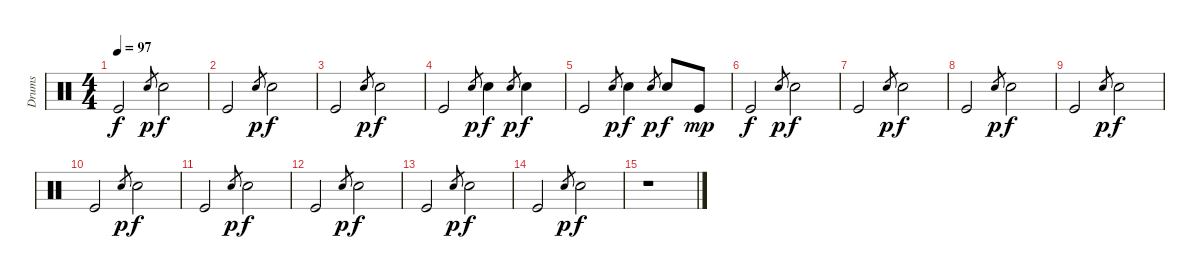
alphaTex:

\track ("Drums" "Drums") {instrument percussion}
\staff {score}
\articulation defaults
\ts (4 4)
\tempo 97
\clef neutral
\ks c "Kick (hit)".2{dy f} "Snare (hit) 2".8{gr dy p} "Snare (hit) 2".2{dy f}
|
"Kick (hit)".2 "Snare (hit) 2".8{gr dy p} "Snare (hit) 2".2{dy f} |
"Kick (hit)".2 "Snare (hit) 2".8{gr dy p} "Snare (hit) 2".2{dy f} |
"Kick (hit)".2 "Snare (hit) 2".8{gr dy p} "Snare (hit) 2".4{dy f} "Snare (hit) 2".8{gr dy p} "Snare (hit) 2".4{dy f} |
"Kick (hit)".2 "Snare (hit) 2".8{gr dy p} "Snare (hit) 2".4{dy f} "Snare (hit) 2".8{gr dy p} "Snare (hit) 2".8{dy f} "Kick (hit)".8{dy mp} |
"Kick (hit)".2{dy f} "Snare (hit) 2".8{gr dy p} "Snare (hit) 2".2{dy f} |
"Kick (hit)".2{volume 0} "Snare (hit) 2".8{gr dy p} "Snare (hit) 2".2{dy f} |
"Kick (hit)".2 "Snare (hit) 2".8{gr dy p} "Snare (hit) 2".2{dy f} |
"Kick (hit)".2 "Snare (hit) 2".8{gr dy p} "Snare (hit) 2".2{dy f} |
"Kick (hit)".2 "Snare (hit) 2".8{gr dy p} "Snare (hit) 2".2{dy f} |
"Kick (hit)".2 "Snare (hit) 2".8{gr dy p} "Snare (hit) 2".2{dy f} |
"Kick (hit)".2 "Snare (hit) 2".8{gr dy p} "Snare (hit) 2".2{dy f} |
"Kick (hit)".2 "Snare (hit) 2".8{gr dy p} "Snare (hit) 2".2{dy f} |
"Kick (hit)".2 "Snare (hit) 2".8{gr dy p} "Snare (hit) 2".2{dy f} |
r.1
